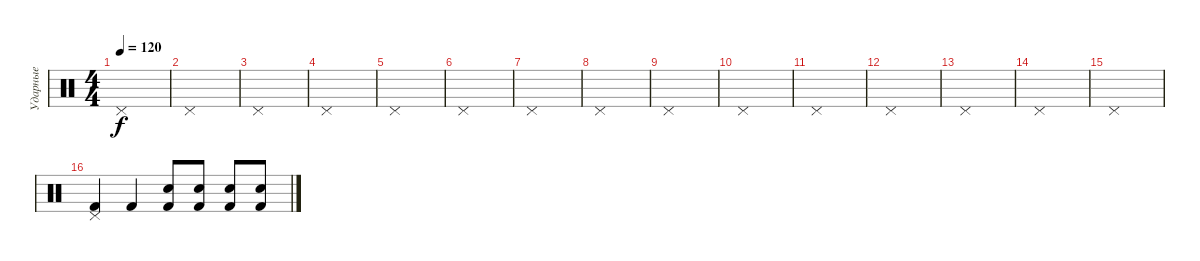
\track ("Ударные" "Ударные") {instrument percussion}
\staff {score}
\articulation defaults
\ts (4 4)
\tempo 120
\clef neutral
\ks c "Pedal Hi-Hat (hit)".1{dy f}
|
"Pedal Hi-Hat (hit)".1 |
"Pedal Hi-Hat (hit)".1 |
"Pedal Hi-Hat (hit)".1 |
"Pedal Hi-Hat (hit)".1 |
"Pedal Hi-Hat (hit)".1 |
"Pedal Hi-Hat (hit)".1 |
"Pedal Hi-Hat (hit)".1 |
"Pedal Hi-Hat (hit)".1 |
"Pedal Hi-Hat (hit)".1 |
"Pedal Hi-Hat (hit)".1 |
"Pedal Hi-Hat (hit)".1 |
"Pedal Hi-Hat (hit)".1 |
"Pedal Hi-Hat (hit)".1 |
"Pedal Hi-Hat (hit)".1 |
("Pedal Hi-Hat (hit)" "Kick (hit) 2").4 "Kick (hit) 2".4 ("Snare (hit) 2" "Kick (hit) 2").8 ("Snare (hit) 2" "Kick (hit) 2").8 ("Snare (hit) 2" "Kick (hit) 2").8 ("Snare (hit) 2" "Kick (hit) 2").8
